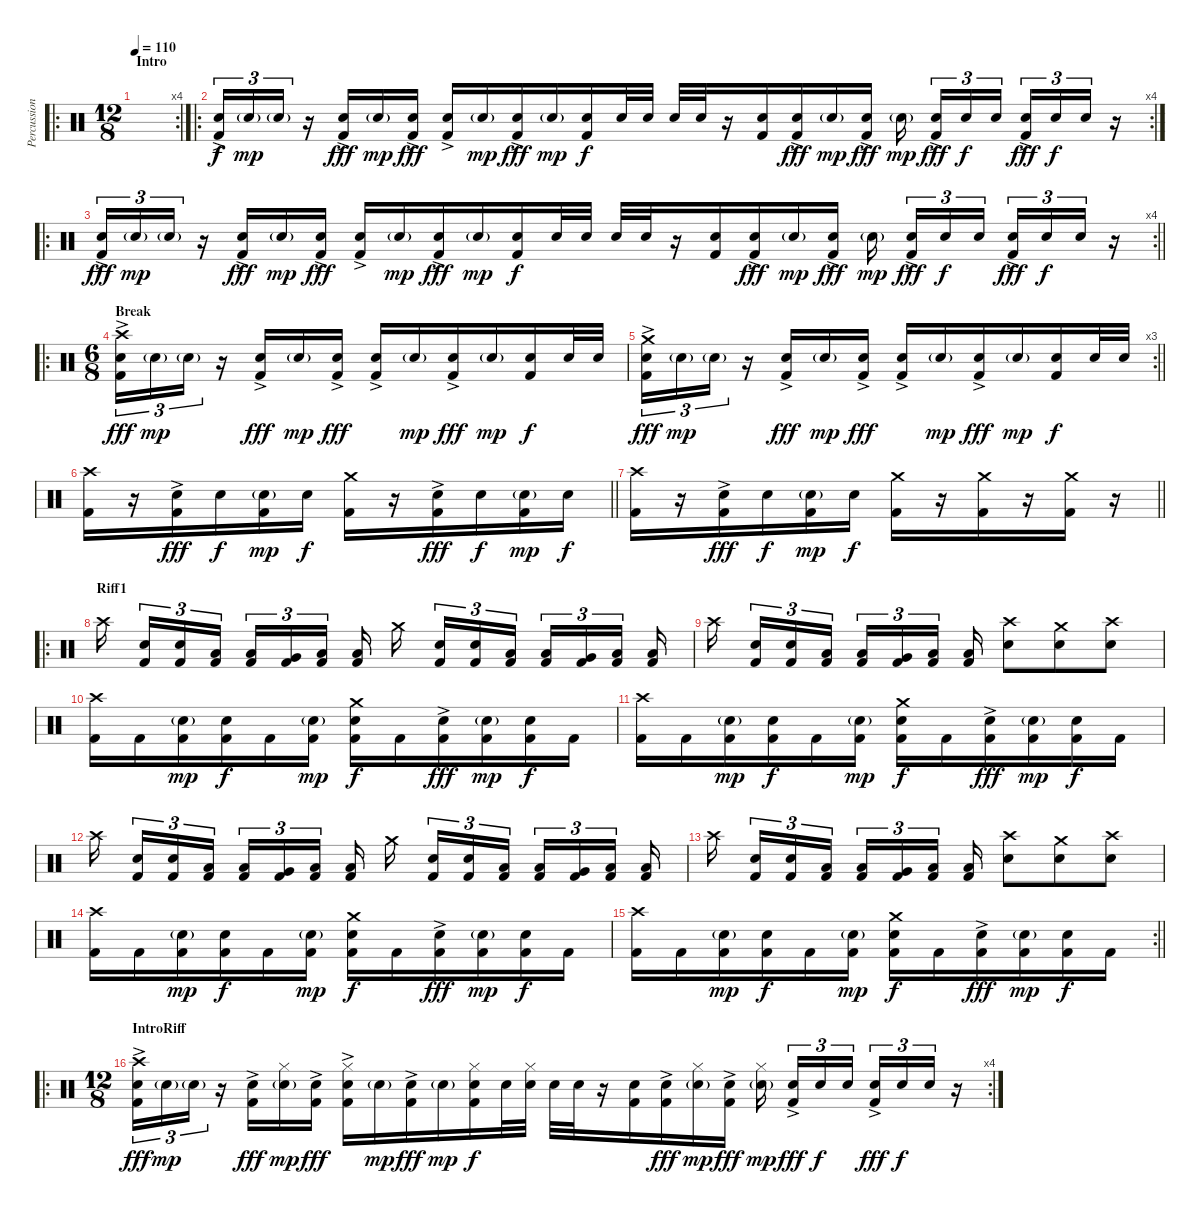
\track ("Percussion" "Percussion") {instrument percussion}
\staff {score}
\articulation defaults
\ro
\rc 4
\ts (12 8)
\section ("" "Intro")
\tempo 110
\clef neutral
\ks c
|
\ro
\rc 4
("Snare (hit) 2"{ac} "Kick (hit) 2").16{tu (3 2)} "Snare (hit) 2"{g}.16{tu (3 2) dy mp} "Snare (hit) 2"{g}.16{tu (3 2)} r.16 ("Snare (hit) 2"{ac} "Kick (hit) 2").16{dy fff} "Snare (hit) 2"{g}.16{dy mp} ("Snare (hit) 2"{ac} "Kick (hit) 2").16{dy fff} ("Snare (hit) 2"{ac} "Kick (hit) 2").16 "Snare (hit) 2"{g}.16{dy mp} ("Snare (hit) 2"{ac} "Kick (hit) 2").16{dy fff} "Snare (hit) 2"{g}.16{dy mp} ("Snare (hit) 2" "Kick (hit) 2").16{dy f} "Snare (hit) 2".32 "Snare (hit) 2".32 "Snare (hit) 2".32 "Snare (hit) 2".32 r.16 ("Snare (hit) 2" "Kick (hit) 2").16 ("Snare (hit) 2"{ac} "Kick (hit) 2").16{dy fff} "Snare (hit) 2"{g}.16{dy mp} ("Snare (hit) 2"{ac} "Kick (hit) 2").16{dy fff} "Snare (hit) 2"{g}.16{dy mp} ("Snare (hit) 2"{ac} "Kick (hit) 2").16{tu (3 2) dy fff} "Snare (hit) 2".16{tu (3 2) dy f} "Snare (hit) 2".16{tu (3 2)} ("Snare (hit) 2"{ac} "Kick (hit) 2").16{tu (3 2) dy fff} "Snare (hit) 2".16{tu (3 2) dy f} "Snare (hit) 2".16{tu (3 2)} r.16 |
\ro
\rc 4
\barLineRight lightlight
("Snare (hit) 2"{ac} "Kick (hit) 2").16{tu (3 2) dy fff} "Snare (hit) 2"{g}.16{tu (3 2) dy mp} "Snare (hit) 2"{g}.16{tu (3 2)} r.16 ("Snare (hit) 2"{ac} "Kick (hit) 2").16{dy fff} "Snare (hit) 2"{g}.16{dy mp} ("Snare (hit) 2"{ac} "Kick (hit) 2").16{dy fff} ("Snare (hit) 2"{ac} "Kick (hit) 2").16 "Snare (hit) 2"{g}.16{dy mp} ("Snare (hit) 2"{ac} "Kick (hit) 2").16{dy fff} "Snare (hit) 2"{g}.16{dy mp} ("Snare (hit) 2" "Kick (hit) 2").16{dy f} "Snare (hit) 2".32 "Snare (hit) 2".32 "Snare (hit) 2".32 "Snare (hit) 2".32 r.16 ("Snare (hit) 2" "Kick (hit) 2").16 ("Snare (hit) 2"{ac} "Kick (hit) 2").16{dy fff} "Snare (hit) 2"{g}.16{dy mp} ("Snare (hit) 2"{ac} "Kick (hit) 2").16{dy fff} "Snare (hit) 2"{g}.16{dy mp} ("Snare (hit) 2"{ac} "Kick (hit) 2").16{tu (3 2) dy fff} "Snare (hit) 2".16{tu (3 2) dy f} "Snare (hit) 2".16{tu (3 2)} ("Snare (hit) 2"{ac} "Kick (hit) 2").16{tu (3 2) dy fff} "Snare (hit) 2".16{tu (3 2) dy f} "Snare (hit) 2".16{tu (3 2)} r.16 |
\ro
\ts (6 8)
\section ("" "Break")
("Crash high (hit)" "Snare (hit) 2"{ac} "Kick (hit) 2").16{tu (3 2) dy fff} "Snare (hit) 2"{g}.16{tu (3 2) dy mp} "Snare (hit) 2"{g}.16{tu (3 2)} r.16 ("Snare (hit) 2"{ac} "Kick (hit) 2").16{dy fff} "Snare (hit) 2"{g}.16{dy mp} ("Snare (hit) 2"{ac} "Kick (hit) 2").16{dy fff} ("Snare (hit) 2"{ac} "Kick (hit) 2").16 "Snare (hit) 2"{g}.16{dy mp} ("Snare (hit) 2"{ac} "Kick (hit) 2").16{dy fff} "Snare (hit) 2"{g}.16{dy mp} ("Snare (hit) 2" "Kick (hit) 2").16{dy f} "Snare (hit) 2".32 "Snare (hit) 2".32 |
\rc 3
\barLineRight lightlight
("Crash medium (hit)" "Snare (hit) 2"{ac} "Kick (hit) 2").16{tu (3 2) dy fff} "Snare (hit) 2"{g}.16{tu (3 2) dy mp} "Snare (hit) 2"{g}.16{tu (3 2)} r.16 ("Snare (hit) 2"{ac} "Kick (hit) 2").16{dy fff} "Snare (hit) 2"{g}.16{dy mp} ("Snare (hit) 2"{ac} "Kick (hit) 2").16{dy fff} ("Snare (hit) 2"{ac} "Kick (hit) 2").16 "Snare (hit) 2"{g}.16{dy mp} ("Snare (hit) 2"{ac} "Kick (hit) 2").16{dy fff} "Snare (hit) 2"{g}.16{dy mp} ("Snare (hit) 2" "Kick (hit) 2").16{dy f} "Snare (hit) 2".32 "Snare (hit) 2".32 |
\barLineRight lightlight
("Crash high (hit)" "Kick (hit) 2").16 r.16 ("Snare (hit) 2"{ac} "Kick (hit) 2").16{dy fff} "Snare (hit) 2".16{dy f} ("Snare (hit) 2"{g} "Kick (hit) 2").16{dy mp} "Snare (hit) 2".16{dy f} ("Crash medium (hit)" "Kick (hit) 2").16 r.16 ("Snare (hit) 2"{ac} "Kick (hit) 2").16{dy fff} "Snare (hit) 2".16{dy f} ("Snare (hit) 2"{g} "Kick (hit) 2").16{dy mp} "Snare (hit) 2".16{dy f} |
\barLineRight lightlight
("Crash high (hit)" "Kick (hit) 2").16 r.16 ("Snare (hit) 2"{ac} "Kick (hit) 2").16{dy fff} "Snare (hit) 2".16{dy f} ("Snare (hit) 2"{g} "Kick (hit) 2").16{dy mp} "Snare (hit) 2".16{dy f} ("Crash medium (hit)" "Kick (hit) 2").16 r.16 ("Crash medium (hit)" "Kick (hit) 2").16 r.16 ("Crash medium (hit)" "Kick (hit) 2").16 r.16 |
\ro
\section ("" "Riff1")
"Crash high (hit)".16 ("Snare (hit) 2" "Kick (hit) 2").16{tu (3 2)} ("Snare (hit) 2" "Kick (hit) 2").16{tu (3 2)} ("Low Tom (hit)" "Kick (hit) 2").16{tu (3 2)} ("Low Tom (hit)" "Kick (hit) 2").16{tu (3 2)} ("Very Low Tom (hit)" "Kick (hit) 2").16{tu (3 2)} ("Low Floor Tom (hit)" "Kick (hit) 2").16{tu (3 2)} ("Low Floor Tom (hit)" "Kick (hit) 2").16 "Crash medium (hit)".16 ("Snare (hit) 2" "Kick (hit) 2").16{tu (3 2)} ("Snare (hit) 2" "Kick (hit) 2").16{tu (3 2)} ("Low Tom (hit)" "Kick (hit) 2").16{tu (3 2)} ("Low Tom (hit)" "Kick (hit) 2").16{tu (3 2)} ("Very Low Tom (hit)" "Kick (hit) 2").16{tu (3 2)} ("Low Floor Tom (hit)" "Kick (hit) 2").16{tu (3 2)} ("Low Floor Tom (hit)" "Kick (hit) 2").16 |
"Crash high (hit)".16 ("Snare (hit) 2" "Kick (hit) 2").16{tu (3 2)} ("Snare (hit) 2" "Kick (hit) 2").16{tu (3 2)} ("Low Tom (hit)" "Kick (hit) 2").16{tu (3 2)} ("Low Tom (hit)" "Kick (hit) 2").16{tu (3 2)} ("Very Low Tom (hit)" "Kick (hit) 2").16{tu (3 2)} ("Low Floor Tom (hit)" "Kick (hit) 2").16{tu (3 2)} ("Low Floor Tom (hit)" "Kick (hit) 2").16 ("Crash high (hit)" "Snare (hit) 2").8 ("Crash medium (hit)" "Snare (hit) 2").8 ("Crash high (hit)" "Snare (hit) 2").8 |
("Crash high (hit)" "Kick (hit) 2").16 "Kick (hit) 2".16 ("Snare (hit) 2"{g} "Kick (hit) 2").16{dy mp} ("Snare (hit) 2" "Kick (hit) 2").16{dy f} "Kick (hit) 2".16 ("Snare (hit) 2"{g} "Kick (hit) 2").16{dy mp} ("Crash medium (hit)" "Snare (hit) 2" "Kick (hit) 2").16{dy f} "Kick (hit) 2".16 ("Snare (hit) 2"{ac} "Kick (hit) 2").16{dy fff} ("Snare (hit) 2"{g} "Kick (hit) 2").16{dy mp} ("Snare (hit) 2" "Kick (hit) 2").16{dy f} "Kick (hit) 2".16 |
("Crash high (hit)" "Kick (hit) 2").16 "Kick (hit) 2".16 ("Snare (hit) 2"{g} "Kick (hit) 2").16{dy mp} ("Snare (hit) 2" "Kick (hit) 2").16{dy f} "Kick (hit) 2".16 ("Snare (hit) 2"{g} "Kick (hit) 2").16{dy mp} ("Crash medium (hit)" "Snare (hit) 2" "Kick (hit) 2").16{dy f} "Kick (hit) 2".16 ("Snare (hit) 2"{ac} "Kick (hit) 2").16{dy fff} ("Snare (hit) 2"{g} "Kick (hit) 2").16{dy mp} ("Snare (hit) 2" "Kick (hit) 2").16{dy f} "Kick (hit) 2".16 |
"Crash high (hit)".16 ("Snare (hit) 2" "Kick (hit) 2").16{tu (3 2)} ("Snare (hit) 2" "Kick (hit) 2").16{tu (3 2)} ("Low Tom (hit)" "Kick (hit) 2").16{tu (3 2)} ("Low Tom (hit)" "Kick (hit) 2").16{tu (3 2)} ("Very Low Tom (hit)" "Kick (hit) 2").16{tu (3 2)} ("Low Floor Tom (hit)" "Kick (hit) 2").16{tu (3 2)} ("Low Floor Tom (hit)" "Kick (hit) 2").16 "Crash medium (hit)".16 ("Snare (hit) 2" "Kick (hit) 2").16{tu (3 2)} ("Snare (hit) 2" "Kick (hit) 2").16{tu (3 2)} ("Low Tom (hit)" "Kick (hit) 2").16{tu (3 2)} ("Low Tom (hit)" "Kick (hit) 2").16{tu (3 2)} ("Very Low Tom (hit)" "Kick (hit) 2").16{tu (3 2)} ("Low Floor Tom (hit)" "Kick (hit) 2").16{tu (3 2)} ("Low Floor Tom (hit)" "Kick (hit) 2").16 |
"Crash high (hit)".16 ("Snare (hit) 2" "Kick (hit) 2").16{tu (3 2)} ("Snare (hit) 2" "Kick (hit) 2").16{tu (3 2)} ("Low Tom (hit)" "Kick (hit) 2").16{tu (3 2)} ("Low Tom (hit)" "Kick (hit) 2").16{tu (3 2)} ("Very Low Tom (hit)" "Kick (hit) 2").16{tu (3 2)} ("Low Floor Tom (hit)" "Kick (hit) 2").16{tu (3 2)} ("Low Floor Tom (hit)" "Kick (hit) 2").16 ("Crash high (hit)" "Snare (hit) 2").8 ("Crash medium (hit)" "Snare (hit) 2").8 ("Crash high (hit)" "Snare (hit) 2").8 |
("Crash high (hit)" "Kick (hit) 2").16 "Kick (hit) 2".16 ("Snare (hit) 2"{g} "Kick (hit) 2").16{dy mp} ("Snare (hit) 2" "Kick (hit) 2").16{dy f} "Kick (hit) 2".16 ("Snare (hit) 2"{g} "Kick (hit) 2").16{dy mp} ("Crash medium (hit)" "Snare (hit) 2" "Kick (hit) 2").16{dy f} "Kick (hit) 2".16 ("Snare (hit) 2"{ac} "Kick (hit) 2").16{dy fff} ("Snare (hit) 2"{g} "Kick (hit) 2").16{dy mp} ("Snare (hit) 2" "Kick (hit) 2").16{dy f} "Kick (hit) 2".16 |
\rc 2
\barLineRight lightlight
("Crash high (hit)" "Kick (hit) 2").16 "Kick (hit) 2".16 ("Snare (hit) 2"{g} "Kick (hit) 2").16{dy mp} ("Snare (hit) 2" "Kick (hit) 2").16{dy f} "Kick (hit) 2".16 ("Snare (hit) 2"{g} "Kick (hit) 2").16{dy mp} ("Crash medium (hit)" "Snare (hit) 2" "Kick (hit) 2").16{dy f} "Kick (hit) 2".16 ("Snare (hit) 2"{ac} "Kick (hit) 2").16{dy fff} ("Snare (hit) 2"{g} "Kick (hit) 2").16{dy mp} ("Snare (hit) 2" "Kick (hit) 2").16{dy f} "Kick (hit) 2".16 |
\ro
\rc 4
\ts (12 8)
\section ("" "IntroRiff")
("Crash high (hit)" "Snare (hit) 2"{ac} "Kick (hit) 2").16{tu (3 2) dy fff} "Snare (hit) 2"{g}.16{tu (3 2) dy mp} "Snare (hit) 2"{g}.16{tu (3 2)} r.16 ("Snare (hit) 2"{ac} "Kick (hit) 2").16{dy fff} ("Hi-Hat (closed)" "Snare (hit) 2"{g}).16{dy mp} ("Snare (hit) 2"{ac} "Kick (hit) 2").16{dy fff} ("Hi-Hat (closed)" "Snare (hit) 2"{ac} "Kick (hit) 2").16 "Snare (hit) 2"{g}.16{dy mp} ("Snare (hit) 2"{ac} "Kick (hit) 2").16{dy fff} "Snare (hit) 2"{g}.16{dy mp} ("Hi-Hat (closed)" "Snare (hit) 2" "Kick (hit) 2").16{dy f} "Snare (hit) 2".32 ("Hi-Hat (closed)" "Snare (hit) 2").32 "Snare (hit) 2".32 "Snare (hit) 2".32 r.16 ("Snare (hit) 2" "Kick (hit) 2").16 ("Snare (hit) 2"{ac} "Kick (hit) 2").16{dy fff} ("Hi-Hat (closed)" "Snare (hit) 2"{g}).16{dy mp} ("Snare (hit) 2"{ac} "Kick (hit) 2").16{dy fff} ("Hi-Hat (closed)" "Snare (hit) 2"{g}).16{dy mp} ("Snare (hit) 2"{ac} "Kick (hit) 2").16{tu (3 2) dy fff} "Snare (hit) 2".16{tu (3 2) dy f} "Snare (hit) 2".16{tu (3 2)} ("Snare (hit) 2"{ac} "Kick (hit) 2").16{tu (3 2) dy fff} "Snare (hit) 2".16{tu (3 2) dy f} "Snare (hit) 2".16{tu (3 2)} r.16
